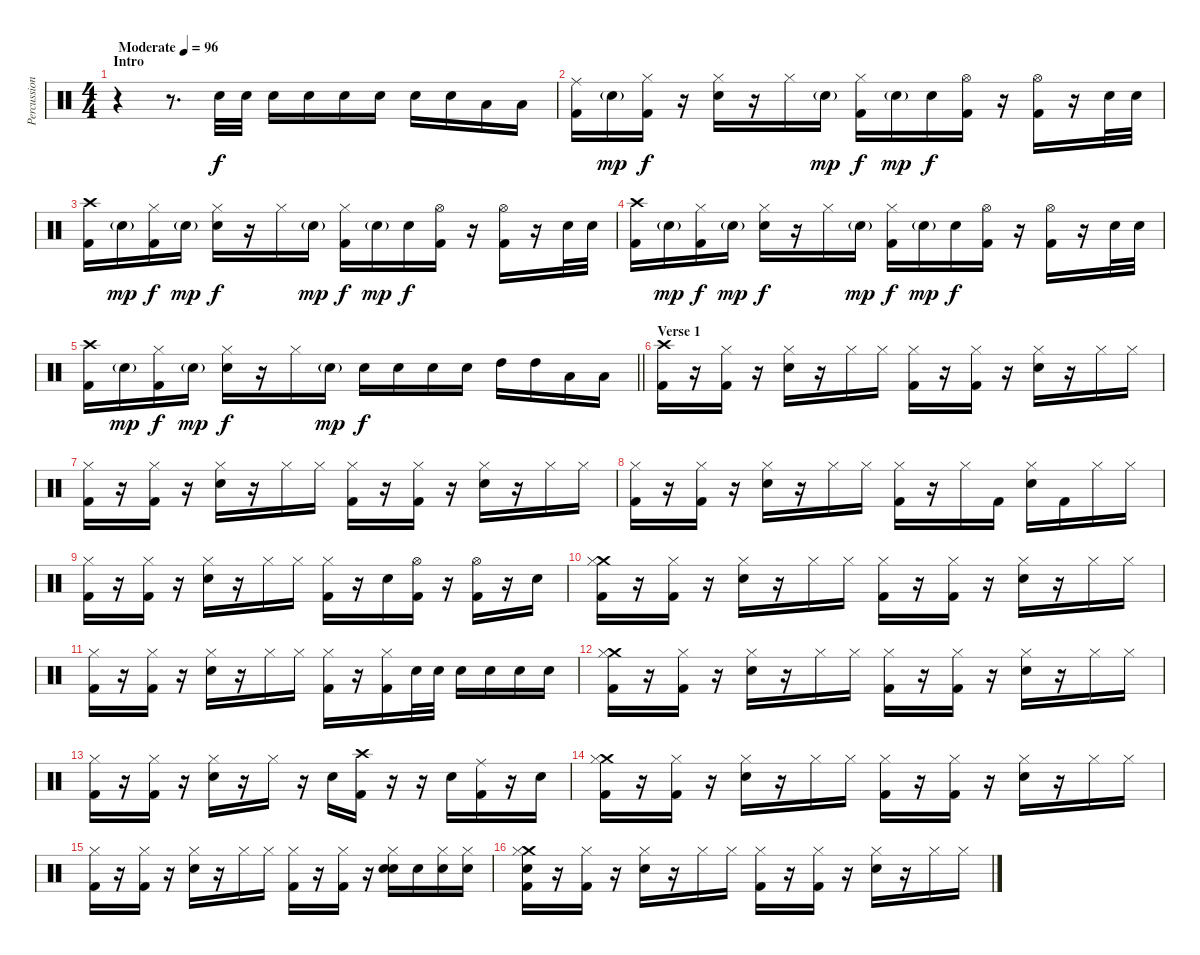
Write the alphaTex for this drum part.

\track ("Percussion" "Percussion") {instrument percussion}
\staff {score}
\articulation defaults
\ts (4 4)
\section ("" "Intro")
\tempo (96 "Moderate")
\clef neutral
\ks c
r.4{dy f} r.8{d} "Snare (hit) 2".32 "Snare (hit) 2".32 "Snare (hit) 2".16 "Snare (hit) 2".16 "Snare (hit) 2".16 "Snare (hit) 2".16 "Snare (hit) 2".16 "Snare (hit) 2".16 "Low Tom (hit)".16 "Low Tom (hit)".16 |
("Ride (middle)" "Kick (hit) 2").16 "Snare (hit) 2"{g}.16{dy mp} ("Hi-Hat (closed)" "Kick (hit) 2").16{dy f} r.16 ("Hi-Hat (closed)" "Snare (hit) 2").16 r.16 "Hi-Hat (closed)".16 "Snare (hit) 2"{g}.16{dy mp} ("Hi-Hat (closed)" "Kick (hit) 2").16{dy f} "Snare (hit) 2"{g}.16{dy mp} "Snare (hit) 2".16{dy f} ("Hi-Hat (open)" "Kick (hit) 2").16 r.16 ("Hi-Hat (open)" "Kick (hit) 2").16 r.16 "Snare (hit) 2".32 "Snare (hit) 2".32 |
("Crash high (hit)" "Kick (hit) 2").16 "Snare (hit) 2"{g}.16{dy mp} ("Hi-Hat (closed)" "Kick (hit) 2").16{dy f} "Snare (hit) 2"{g}.16{dy mp} ("Hi-Hat (closed)" "Snare (hit) 2").16{dy f} r.16 "Hi-Hat (closed)".16 "Snare (hit) 2"{g}.16{dy mp} ("Hi-Hat (closed)" "Kick (hit) 2").16{dy f} "Snare (hit) 2"{g}.16{dy mp} "Snare (hit) 2".16{dy f} ("Hi-Hat (open)" "Kick (hit) 2").16 r.16 ("Hi-Hat (open)" "Kick (hit) 2").16 r.16 "Snare (hit) 2".32 "Snare (hit) 2".32 |
("Crash high (hit)" "Kick (hit) 2").16 "Snare (hit) 2"{g}.16{dy mp} ("Hi-Hat (closed)" "Kick (hit) 2").16{dy f} "Snare (hit) 2"{g}.16{dy mp} ("Hi-Hat (closed)" "Snare (hit) 2").16{dy f} r.16 "Hi-Hat (closed)".16 "Snare (hit) 2"{g}.16{dy mp} ("Hi-Hat (closed)" "Kick (hit) 2").16{dy f} "Snare (hit) 2"{g}.16{dy mp} "Snare (hit) 2".16{dy f} ("Hi-Hat (open)" "Kick (hit) 2").16 r.16 ("Hi-Hat (open)" "Kick (hit) 2").16 r.16 "Snare (hit) 2".32 "Snare (hit) 2".32 |
\barLineRight lightlight
("Crash high (hit)" "Kick (hit) 2").16 "Snare (hit) 2"{g}.16{dy mp} ("Hi-Hat (closed)" "Kick (hit) 2").16{dy f} "Snare (hit) 2"{g}.16{dy mp} ("Hi-Hat (closed)" "Snare (hit) 2").16{dy f} r.16 "Hi-Hat (closed)".16 "Snare (hit) 2"{g}.16{dy mp} "Snare (hit) 2".16{dy f} "Snare (hit) 2".16 "Snare (hit) 2".16 "Snare (hit) 2".16 "High Tom (hit)".16 "High Tom (hit)".16 "Low Tom (hit)".16 "Low Tom (hit)".16 |
\section ("" "Verse 1")
("Crash high (hit)" "Kick (hit) 2").16 r.16 ("Hi-Hat (closed)" "Kick (hit) 2").16 r.16 ("Hi-Hat (closed)" "Snare (hit) 2").16 r.16 "Hi-Hat (closed)".16 "Hi-Hat (closed)".16 ("Hi-Hat (closed)" "Kick (hit) 2").16 r.16 ("Hi-Hat (closed)" "Kick (hit) 2").16 r.16 ("Hi-Hat (closed)" "Snare (hit) 2").16 r.16 "Hi-Hat (closed)".16 "Hi-Hat (closed)".16 |
("Hi-Hat (closed)" "Kick (hit) 2").16 r.16 ("Hi-Hat (closed)" "Kick (hit) 2").16 r.16 ("Hi-Hat (closed)" "Snare (hit) 2").16 r.16 "Hi-Hat (closed)".16 "Hi-Hat (closed)".16 ("Hi-Hat (closed)" "Kick (hit) 2").16 r.16 ("Hi-Hat (closed)" "Kick (hit) 2").16 r.16 ("Hi-Hat (closed)" "Snare (hit) 2").16 r.16 "Hi-Hat (closed)".16 "Hi-Hat (closed)".16 |
("Hi-Hat (closed)" "Kick (hit) 2").16 r.16 ("Hi-Hat (closed)" "Kick (hit) 2").16 r.16 ("Hi-Hat (closed)" "Snare (hit) 2").16 r.16 "Hi-Hat (closed)".16 "Hi-Hat (closed)".16 ("Hi-Hat (closed)" "Kick (hit) 2").16 r.16 "Hi-Hat (closed)".16 "Kick (hit) 2".16 ("Hi-Hat (closed)" "Snare (hit) 2").16 "Kick (hit) 2".16 "Hi-Hat (closed)".16 "Hi-Hat (closed)".16 |
("Hi-Hat (closed)" "Kick (hit) 2").16 r.16 ("Hi-Hat (closed)" "Kick (hit) 2").16 r.16 ("Hi-Hat (closed)" "Snare (hit) 2").16 r.16 "Hi-Hat (closed)".16 "Hi-Hat (closed)".16 ("Hi-Hat (closed)" "Kick (hit) 2").16 r.16 "Snare (hit) 2".16 ("Hi-Hat (open)" "Kick (hit) 2").16 r.16 ("Hi-Hat (open)" "Kick (hit) 2").16 r.16 "Snare (hit) 2".16 |
("Crash medium (hit)" "Hi-Hat (closed)" "Kick (hit) 2").16 r.16 ("Hi-Hat (closed)" "Kick (hit) 2").16 r.16 ("Hi-Hat (closed)" "Snare (hit) 2").16 r.16 "Hi-Hat (closed)".16 "Hi-Hat (closed)".16 ("Hi-Hat (closed)" "Kick (hit) 2").16 r.16 ("Hi-Hat (closed)" "Kick (hit) 2").16 r.16 ("Hi-Hat (closed)" "Snare (hit) 2").16 r.16 "Hi-Hat (closed)".16 "Hi-Hat (closed)".16 |
("Hi-Hat (closed)" "Kick (hit) 2").16 r.16 ("Hi-Hat (closed)" "Kick (hit) 2").16 r.16 ("Hi-Hat (closed)" "Snare (hit) 2").16 r.16 "Hi-Hat (closed)".16 "Hi-Hat (closed)".16 ("Hi-Hat (closed)" "Kick (hit) 2").16 r.16 ("Hi-Hat (closed)" "Kick (hit) 2").16 "Snare (hit) 2".32 "Snare (hit) 2".32 "Snare (hit) 2".16 "Snare (hit) 2".16 "Snare (hit) 2".16 "Snare (hit) 2".16 |
("Crash medium (hit)" "Hi-Hat (closed)" "Kick (hit) 2").16 r.16 ("Hi-Hat (closed)" "Kick (hit) 2").16 r.16 ("Hi-Hat (closed)" "Snare (hit) 2").16 r.16 "Hi-Hat (closed)".16 "Hi-Hat (closed)".16 ("Hi-Hat (closed)" "Kick (hit) 2").16 r.16 ("Hi-Hat (closed)" "Kick (hit) 2").16 r.16 ("Hi-Hat (closed)" "Snare (hit) 2").16 r.16 "Hi-Hat (closed)".16 "Hi-Hat (closed)".16 |
("Hi-Hat (closed)" "Kick (hit) 2").16 r.16 ("Hi-Hat (closed)" "Kick (hit) 2").16 r.16 ("Hi-Hat (closed)" "Snare (hit) 2").16 r.16 "Hi-Hat (closed)".16 r.16 "Snare (hit) 2".16 ("Crash high (hit)" "Kick (hit) 2").16 r.16 r.16 "Snare (hit) 2".16 ("Ride (middle)" "Kick (hit) 2").16 r.16 "Snare (hit) 2".16 |
("Crash medium (hit)" "Hi-Hat (closed)" "Kick (hit) 2").16 r.16 ("Hi-Hat (closed)" "Kick (hit) 2").16 r.16 ("Hi-Hat (closed)" "Snare (hit) 2").16 r.16 "Hi-Hat (closed)".16 "Hi-Hat (closed)".16 ("Hi-Hat (closed)" "Kick (hit) 2").16 r.16 ("Hi-Hat (closed)" "Kick (hit) 2").16 r.16 ("Hi-Hat (closed)" "Snare (hit) 2").16 r.16 "Hi-Hat (closed)".16 "Hi-Hat (closed)".16 |
("Hi-Hat (closed)" "Kick (hit) 2").16 r.16 ("Hi-Hat (closed)" "Kick (hit) 2").16 r.16 ("Hi-Hat (closed)" "Snare (hit) 2").16 r.16 "Hi-Hat (closed)".16 "Hi-Hat (closed)".16 ("Hi-Hat (closed)" "Kick (hit) 2").16 r.16 ("Hi-Hat (closed)" "Kick (hit) 2").16 r.16 ("Hi-Hat (closed)" "Snare (hit) 2" "Hand Clap (hit)").16 "Hand Clap (hit)".16 ("Hi-Hat (closed)" "Hand Clap (hit)").16 ("Hi-Hat (closed)" "Hand Clap (hit)").16 |
("Crash medium (hit)" "Hi-Hat (closed)" "Hand Clap (hit)" "Kick (hit) 2").16 r.16 ("Hi-Hat (closed)" "Kick (hit) 2").16 r.16 ("Hi-Hat (closed)" "Snare (hit) 2").16 r.16 "Hi-Hat (closed)".16 "Hi-Hat (closed)".16 ("Hi-Hat (closed)" "Kick (hit) 2").16 r.16 ("Hi-Hat (closed)" "Kick (hit) 2").16 r.16 ("Hi-Hat (closed)" "Snare (hit) 2").16 r.16 "Hi-Hat (closed)".16 "Hi-Hat (closed)".16
